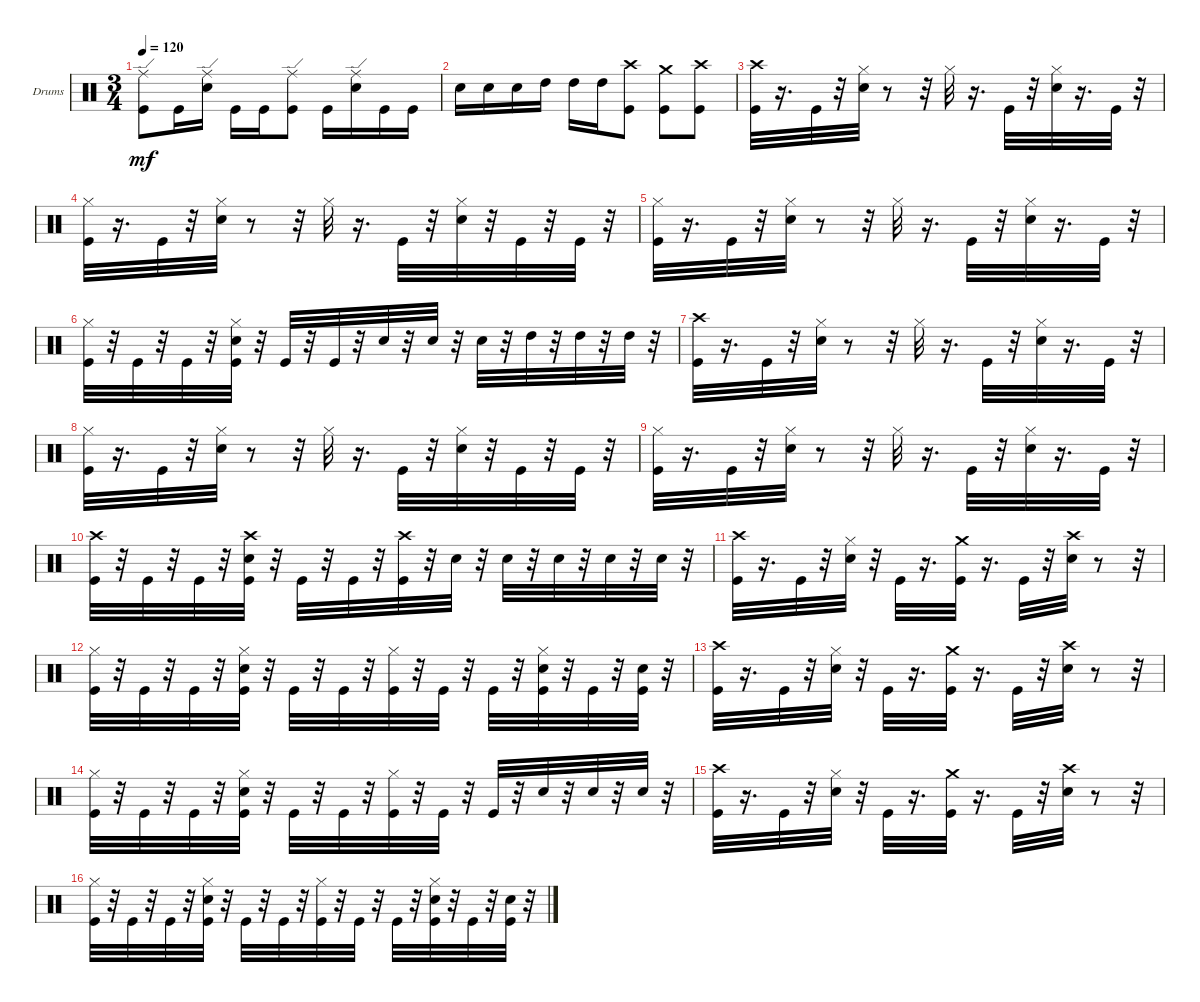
\bracketExtendMode groupsimilarinstruments
\firstSystemTrackNameOrientation horizontal
\otherSystemsTrackNameOrientation horizontal
\track ("" "Drums") {instrument percussion}
\staff {score}
\articulation defaults
\ts (3 4)
\tempo 120
\clef neutral
\ks c
("Ride (edge)" "Kick (hit)").8{dy mf} "Kick (hit)".16 ("Snare (hit) 2" "Ride (edge)").16 "Kick (hit)".16 "Kick (hit)".16 ("Kick (hit)" "Ride (edge)").8 "Kick (hit)".16 ("Snare (hit) 2" "Ride (edge)").16 "Kick (hit)".16 "Kick (hit)".16 |
"Snare (hit) 2".16 "Snare (hit) 2".16 "Snare (hit) 2".16 "High Tom (hit)".16 "High Tom (hit)".16 "High Tom (hit)".16 ("Crash high (hit)" "Kick (hit)").8 ("Crash medium (hit)" "Kick (hit)").8 ("Crash high (hit)" "Kick (hit)").8 |
("Crash high (hit)" "Kick (hit)").32 r.16{d} "Kick (hit)".32 r.32 ("Snare (hit) 2" "Hi-Hat (closed)").32 r.8 r.32 "Hi-Hat (closed)".32 r.16{d} "Kick (hit)".32 r.32 ("Snare (hit) 2" "Hi-Hat (closed)").32 r.16{d} "Kick (hit)".32 r.32 |
("Hi-Hat (closed)" "Kick (hit)").32 r.16{d} "Kick (hit)".32 r.32 ("Snare (hit) 2" "Hi-Hat (closed)").32 r.8 r.32 "Hi-Hat (closed)".32 r.16{d} "Kick (hit)".32 r.32 ("Snare (hit) 2" "Hi-Hat (closed)").32 r.32 "Kick (hit)".32 r.32 "Kick (hit)".32 r.32 |
("Hi-Hat (closed)" "Kick (hit)").32 r.16{d} "Kick (hit)".32 r.32 ("Snare (hit) 2" "Hi-Hat (closed)").32 r.8 r.32 "Hi-Hat (closed)".32 r.16{d} "Kick (hit)".32 r.32 ("Snare (hit) 2" "Hi-Hat (closed)").32 r.16{d} "Kick (hit)".32 r.32 |
("Hi-Hat (closed)" "Kick (hit)").32 r.32 "Kick (hit)".32 r.32 "Kick (hit)".32 r.32 ("Kick (hit)" "Snare (hit) 2" "Hi-Hat (closed)").32 r.32 "Kick (hit)".32 r.32 "Kick (hit)".32 r.32 "Snare (hit) 2".32 r.32 "Snare (hit) 2".32 r.32 "Snare (hit) 2".32 r.32 "High Tom (hit)".32 r.32 "High Tom (hit)".32 r.32 "High Tom (hit)".32 r.32 |
("Crash high (hit)" "Kick (hit)").32 r.16{d} "Kick (hit)".32 r.32 ("Snare (hit) 2" "Hi-Hat (closed)").32 r.8 r.32 "Hi-Hat (closed)".32 r.16{d} "Kick (hit)".32 r.32 ("Snare (hit) 2" "Hi-Hat (closed)").32 r.16{d} "Kick (hit)".32 r.32 |
("Hi-Hat (closed)" "Kick (hit)").32 r.16{d} "Kick (hit)".32 r.32 ("Snare (hit) 2" "Hi-Hat (closed)").32 r.8 r.32 "Hi-Hat (closed)".32 r.16{d} "Kick (hit)".32 r.32 ("Snare (hit) 2" "Hi-Hat (closed)").32 r.32 "Kick (hit)".32 r.32 "Kick (hit)".32 r.32 |
("Hi-Hat (closed)" "Kick (hit)").32 r.16{d} "Kick (hit)".32 r.32 ("Snare (hit) 2" "Hi-Hat (closed)").32 r.8 r.32 "Hi-Hat (closed)".32 r.16{d} "Kick (hit)".32 r.32 ("Snare (hit) 2" "Hi-Hat (closed)").32 r.16{d} "Kick (hit)".32 r.32 |
("Crash high (hit)" "Kick (hit)").32 r.32 "Kick (hit)".32 r.32 "Kick (hit)".32 r.32 ("Crash high (hit)" "Snare (hit) 2" "Kick (hit)").32 r.32 "Kick (hit)".32 r.32 "Kick (hit)".32 r.32 ("Crash high (hit)" "Kick (hit)").32 r.32 "Snare (hit) 2".32 r.32 "Snare (hit) 2".32 r.32 "Snare (hit) 2".32 r.32 "Snare (hit) 2".32 r.32 "Snare (hit) 2".32 r.32 |
("Crash high (hit)" "Kick (hit)").32 r.16{d} "Kick (hit)".32 r.32 ("Snare (hit) 2" "Hi-Hat (closed)").32 r.32 "Kick (hit)".32 r.16{d} ("Crash medium (hit)" "Kick (hit)").32 r.16{d} "Kick (hit)".32 r.32 ("Crash high (hit)" "Snare (hit) 2").32 r.8 r.32 |
("Hi-Hat (closed)" "Kick (hit)").32 r.32 "Kick (hit)".32 r.32 "Kick (hit)".32 r.32 ("Kick (hit)" "Hi-Hat (closed)" "Snare (hit) 2").32 r.32 "Kick (hit)".32 r.32 "Kick (hit)".32 r.32 ("Hi-Hat (closed)" "Kick (hit)").32 r.32 "Kick (hit)".32 r.32 "Kick (hit)".32 r.32 ("Kick (hit)" "Hi-Hat (closed)" "Snare (hit) 2").32 r.32 "Kick (hit)".32 r.32 ("Kick (hit)" "Snare (hit) 2").32 r.32 |
("Crash high (hit)" "Kick (hit)").32 r.16{d} "Kick (hit)".32 r.32 ("Snare (hit) 2" "Hi-Hat (closed)").32 r.32 "Kick (hit)".32 r.16{d} ("Crash medium (hit)" "Kick (hit)").32 r.16{d} "Kick (hit)".32 r.32 ("Crash high (hit)" "Snare (hit) 2").32 r.8 r.32 |
("Hi-Hat (closed)" "Kick (hit)").32 r.32 "Kick (hit)".32 r.32 "Kick (hit)".32 r.32 ("Kick (hit)" "Hi-Hat (closed)" "Snare (hit) 2").32 r.32 "Kick (hit)".32 r.32 "Kick (hit)".32 r.32 ("Hi-Hat (closed)" "Kick (hit)").32 r.32 "Kick (hit)".32 r.32 "Kick (hit)".32 r.32 "Snare (hit) 2".32 r.32 "Snare (hit) 2".32 r.32 "Snare (hit) 2".32 r.32 |
("Crash high (hit)" "Kick (hit)").32 r.16{d} "Kick (hit)".32 r.32 ("Snare (hit) 2" "Hi-Hat (closed)").32 r.32 "Kick (hit)".32 r.16{d} ("Crash medium (hit)" "Kick (hit)").32 r.16{d} "Kick (hit)".32 r.32 ("Crash high (hit)" "Snare (hit) 2").32 r.8 r.32 |
("Hi-Hat (closed)" "Kick (hit)").32 r.32 "Kick (hit)".32 r.32 "Kick (hit)".32 r.32 ("Kick (hit)" "Hi-Hat (closed)" "Snare (hit) 2").32 r.32 "Kick (hit)".32 r.32 "Kick (hit)".32 r.32 ("Hi-Hat (closed)" "Kick (hit)").32 r.32 "Kick (hit)".32 r.32 "Kick (hit)".32 r.32 ("Kick (hit)" "Hi-Hat (closed)" "Snare (hit) 2").32 r.32 "Kick (hit)".32 r.32 ("Kick (hit)" "Snare (hit) 2").32 r.32
